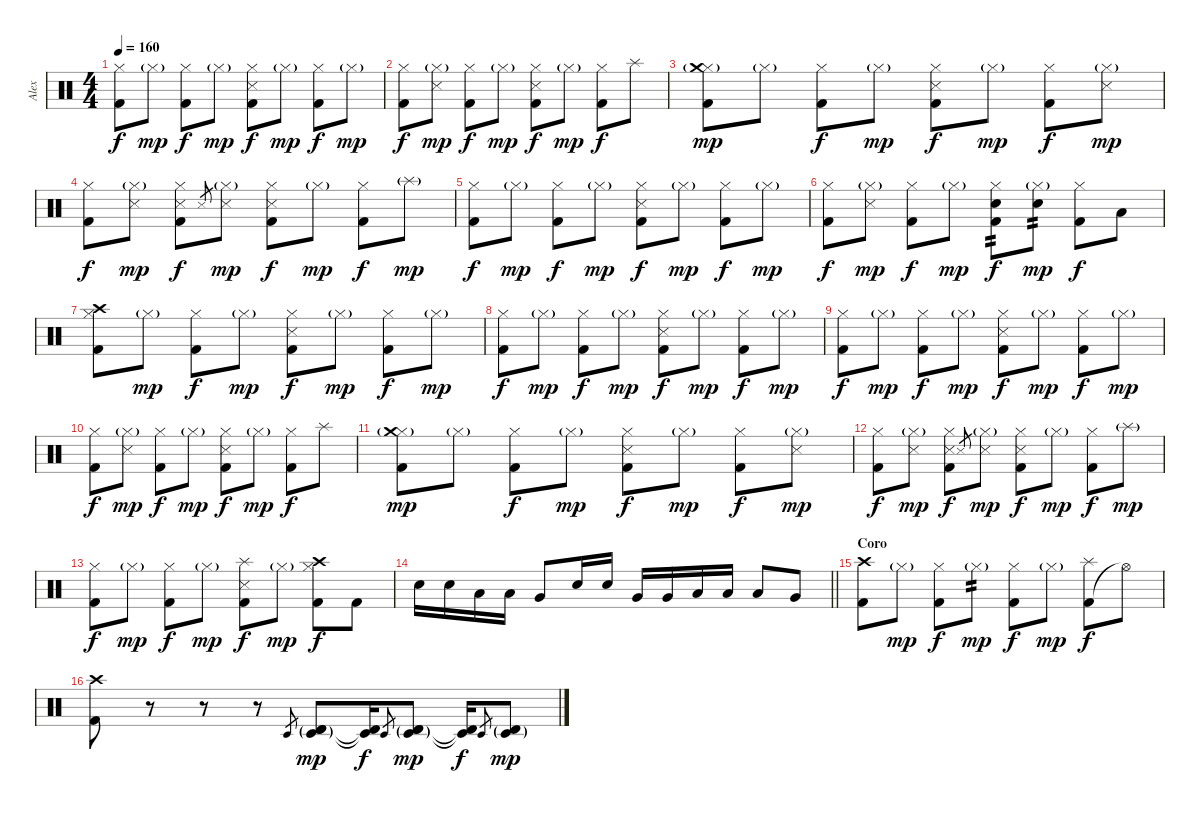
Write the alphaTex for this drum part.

\track ("Alex" "Alex") {instrument percussion}
\staff {score}
\articulation defaults
\ts (4 4)
\tempo 160
\clef neutral
\ks c
("Kick (hit) 2" "Hi-Hat (closed)").8{dy f} "Hi-Hat (closed)"{g}.8{dy mp} ("Kick (hit) 2" "Hi-Hat (closed)").8{dy f} "Hi-Hat (closed)"{g}.8{dy mp} ("Kick (hit) 2" "Hi-Hat (closed)" "Snare (side stick) 3").8{dy f} "Hi-Hat (closed)"{g}.8{dy mp} ("Kick (hit) 2" "Hi-Hat (closed)").8{dy f} "Hi-Hat (closed)"{g}.8{dy mp} |
("Kick (hit) 2" "Hi-Hat (closed)").8{dy f} ("Hi-Hat (closed)"{g} "Snare (side stick) 3").8{dy mp} ("Kick (hit) 2" "Hi-Hat (closed)").8{dy f} "Hi-Hat (closed)"{g}.8{dy mp} ("Kick (hit) 2" "Hi-Hat (closed)" "Snare (side stick) 3").8{dy f} "Hi-Hat (closed)"{g}.8{dy mp} ("Kick (hit) 2" "Hi-Hat (closed)").8{dy f} "Splash (hit)".8 |
("Kick (hit) 2" "Hi-Hat (closed)" "Crash medium (hit)"{g}).8{dy mp} "Hi-Hat (closed)"{g}.8 ("Kick (hit) 2" "Hi-Hat (closed)").8{dy f} "Hi-Hat (closed)"{g}.8{dy mp} ("Kick (hit) 2" "Hi-Hat (closed)" "Snare (side stick) 3").8{dy f} "Hi-Hat (closed)"{g}.8{dy mp} ("Kick (hit) 2" "Hi-Hat (closed)").8{dy f} ("Hi-Hat (closed)"{g} "Snare (side stick) 3").8{dy mp} |
("Kick (hit) 2" "Hi-Hat (closed)").8{dy f} ("Hi-Hat (closed)"{g} "Snare (side stick) 3").8{dy mp} ("Kick (hit) 2" "Hi-Hat (closed)" "Snare (side stick) 3").8{dy f} "Snare (side stick) 3".8{gr} ("Hi-Hat (closed)"{g} "Snare (side stick) 3").8{dy mp} ("Kick (hit) 2" "Hi-Hat (closed)" "Snare (side stick) 3").8{dy f} "Hi-Hat (closed)"{g}.8{dy mp} ("Kick (hit) 2" "Hi-Hat (closed)").8{dy f} "Splash (hit)"{g}.8{dy mp} |
("Kick (hit) 2" "Hi-Hat (closed)").8{dy f} "Hi-Hat (closed)"{g}.8{dy mp} ("Kick (hit) 2" "Hi-Hat (closed)").8{dy f} "Hi-Hat (closed)"{g}.8{dy mp} ("Kick (hit) 2" "Hi-Hat (closed)" "Snare (side stick) 3").8{dy f} "Hi-Hat (closed)"{g}.8{dy mp} ("Kick (hit) 2" "Hi-Hat (closed)").8{dy f} "Hi-Hat (closed)"{g}.8{dy mp} |
("Kick (hit) 2" "Hi-Hat (closed)").8{dy f} ("Hi-Hat (closed)"{g} "Snare (side stick) 3").8{dy mp} ("Kick (hit) 2" "Hi-Hat (closed)").8{dy f} "Hi-Hat (closed)"{g}.8{dy mp} ("Kick (hit) 2" "Hi-Hat (closed)" "Snare (hit) 2").8{tp 2 dy f} ("Hi-Hat (closed)"{g} "Snare (hit) 2").8{tp 2 dy mp} ("Kick (hit) 2" "Hi-Hat (closed)").8{dy f} "Low Tom (hit)".8 |
("Kick (hit) 2" "Hi-Hat (closed)" "Crash high (hit)").8 "Hi-Hat (closed)"{g}.8{dy mp} ("Kick (hit) 2" "Hi-Hat (closed)").8{dy f} "Hi-Hat (closed)"{g}.8{dy mp} ("Kick (hit) 2" "Hi-Hat (closed)" "Snare (side stick) 3").8{dy f} "Hi-Hat (closed)"{g}.8{dy mp} ("Kick (hit) 2" "Hi-Hat (closed)").8{dy f} "Hi-Hat (closed)"{g}.8{dy mp} |
("Kick (hit) 2" "Hi-Hat (closed)").8{dy f} "Hi-Hat (closed)"{g}.8{dy mp} ("Kick (hit) 2" "Hi-Hat (closed)").8{dy f} "Hi-Hat (closed)"{g}.8{dy mp} ("Kick (hit) 2" "Hi-Hat (closed)" "Snare (side stick) 3").8{dy f} "Hi-Hat (closed)"{g}.8{dy mp} ("Kick (hit) 2" "Hi-Hat (closed)").8{dy f} "Hi-Hat (closed)"{g}.8{dy mp} |
("Kick (hit) 2" "Hi-Hat (closed)").8{dy f} "Hi-Hat (closed)"{g}.8{dy mp} ("Kick (hit) 2" "Hi-Hat (closed)").8{dy f} "Hi-Hat (closed)"{g}.8{dy mp} ("Kick (hit) 2" "Hi-Hat (closed)" "Snare (side stick) 3").8{dy f} "Hi-Hat (closed)"{g}.8{dy mp} ("Kick (hit) 2" "Hi-Hat (closed)").8{dy f} "Hi-Hat (closed)"{g}.8{dy mp} |
("Kick (hit) 2" "Hi-Hat (closed)").8{dy f} ("Hi-Hat (closed)"{g} "Snare (side stick) 3").8{dy mp} ("Kick (hit) 2" "Hi-Hat (closed)").8{dy f} "Hi-Hat (closed)"{g}.8{dy mp} ("Kick (hit) 2" "Hi-Hat (closed)" "Snare (side stick) 3").8{dy f} "Hi-Hat (closed)"{g}.8{dy mp} ("Kick (hit) 2" "Hi-Hat (closed)").8{dy f} "Splash (hit)".8 |
("Kick (hit) 2" "Hi-Hat (closed)" "Crash medium (hit)"{g}).8{dy mp} "Hi-Hat (closed)"{g}.8 ("Kick (hit) 2" "Hi-Hat (closed)").8{dy f} "Hi-Hat (closed)"{g}.8{dy mp} ("Kick (hit) 2" "Hi-Hat (closed)" "Snare (side stick) 3").8{dy f} "Hi-Hat (closed)"{g}.8{dy mp} ("Kick (hit) 2" "Hi-Hat (closed)").8{dy f} ("Hi-Hat (closed)"{g} "Snare (side stick) 3").8{dy mp} |
("Kick (hit) 2" "Hi-Hat (closed)").8{dy f} ("Hi-Hat (closed)"{g} "Snare (side stick) 3").8{dy mp} ("Kick (hit) 2" "Hi-Hat (closed)" "Snare (side stick) 3").8{dy f} "Snare (side stick) 3".8{gr} ("Hi-Hat (closed)"{g} "Snare (side stick) 3").8{dy mp} ("Kick (hit) 2" "Hi-Hat (closed)" "Snare (side stick) 3").8{dy f} "Hi-Hat (closed)"{g}.8{dy mp} ("Kick (hit) 2" "Hi-Hat (closed)").8{dy f} "Splash (hit)"{g}.8{dy mp} |
("Kick (hit) 2" "Hi-Hat (closed)").8{dy f} "Hi-Hat (closed)"{g}.8{dy mp} ("Kick (hit) 2" "Hi-Hat (closed)").8{dy f} "Hi-Hat (closed)"{g}.8{dy mp} ("Kick (hit) 2" "Splash (hit)" "Snare (side stick) 3").8{dy f} "Hi-Hat (closed)"{g}.8{dy mp} ("Kick (hit) 2" "Hi-Hat (closed)" "Crash high (hit)").8{dy f} "Kick (hit) 2".8 |
\barLineRight lightlight "Snare (hit) 2".16 "Snare (hit) 2".16 "Low Tom (hit)".16 "Low Tom (hit)".16 "Very Low Tom (hit)".8 "Snare (hit) 2".16 "Snare (hit) 2".16 "Very Low Tom (hit)".16 "Very Low Tom (hit)".16 "Low Tom (hit)".16 "Low Tom (hit)".16 "Low Tom (hit)".8 "Very Low Tom (hit)".8
|
\section ("" "Coro")
("Kick (hit) 2" "Crash high (hit)").8 "Hi-Hat (closed)"{g}.8{dy mp} ("Kick (hit) 2" "Hi-Hat (closed)").8{dy f} "Hi-Hat (closed)"{g}.8{tp 2 dy mp} ("Kick (hit) 2" "Hi-Hat (closed)").8{dy f} "Hi-Hat (closed)"{g}.8{dy mp} ("Kick (hit) 2" "Splash (hit)").8{dy f} "Hi-Hat (open)"{t}.8 |
("Kick (hit) 2" "Crash high (hit)").8 r.8 r.8 r.8 "Timbale low (hit)".8{gr} ("Timbale low (hit)"{g} "Timbale high (hit)"{g} "Timbale high (hit)"{g}).8{dy mp} ("Timbale low (hit)"{t} "Timbale high (hit)"{t}).16{dy f} "Timbale low (hit)".8{gr} ("Timbale low (hit)"{g} "Timbale high (hit)"{g} "Timbale high (hit)"{g}).8{dy mp} ("Timbale low (hit)"{t} "Timbale high (hit)"{t}).16{dy f} "Timbale low (hit)".8{gr} ("Timbale low (hit)"{g} "Timbale high (hit)"{g}).8{dy mp}
